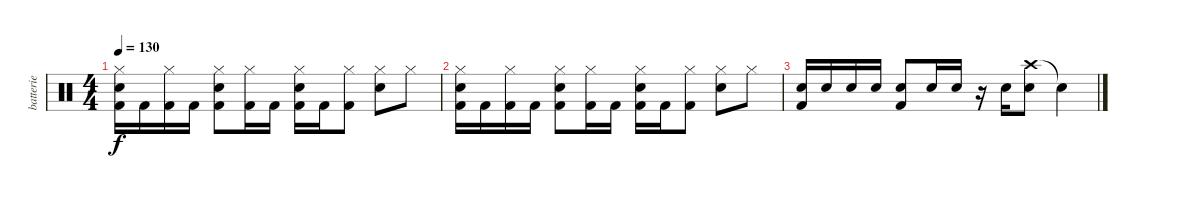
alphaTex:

\track ("batterie" "batterie") {instrument percussion}
\staff {score}
\articulation defaults
\ts (4 4)
\tempo 130
\clef neutral
\ks c
("Snare (hit) 2" "Kick (hit) 2" "Hi-Hat (closed)").16{dy f} "Kick (hit) 2".16 ("Kick (hit) 2" "Hi-Hat (closed)").16 "Kick (hit) 2".16 ("Snare (hit) 2" "Kick (hit) 2" "Hi-Hat (closed)").8 ("Kick (hit) 2" "Hi-Hat (closed)").16 "Kick (hit) 2".16 ("Snare (hit) 2" "Kick (hit) 2" "Hi-Hat (closed)").16 "Kick (hit) 2".16 ("Kick (hit) 2" "Hi-Hat (closed)").8 ("Snare (hit) 2" "Hi-Hat (closed)").8 "Hi-Hat (closed)".8 |
("Snare (hit) 2" "Kick (hit) 2" "Hi-Hat (closed)").16 "Kick (hit) 2".16 ("Kick (hit) 2" "Hi-Hat (closed)").16 "Kick (hit) 2".16 ("Snare (hit) 2" "Kick (hit) 2" "Hi-Hat (closed)").8 ("Kick (hit) 2" "Hi-Hat (closed)").16 "Kick (hit) 2".16 ("Snare (hit) 2" "Kick (hit) 2" "Hi-Hat (closed)").16 "Kick (hit) 2".16 ("Kick (hit) 2" "Hi-Hat (closed)").8 ("Snare (hit) 2" "Hi-Hat (closed)").8 "Hi-Hat (closed)".8 |
("Snare (hit) 2" "Kick (hit) 2").16 "Snare (hit) 2".16 "Snare (hit) 2".16 "Snare (hit) 2".16 ("Snare (hit) 2" "Kick (hit) 2").8 "Snare (hit) 2".16 "Snare (hit) 2".16 r.16 "Snare (hit) 2".16 ("Crash high (hit)" "Snare (hit) 2").8 "Snare (hit)"{t}.4
